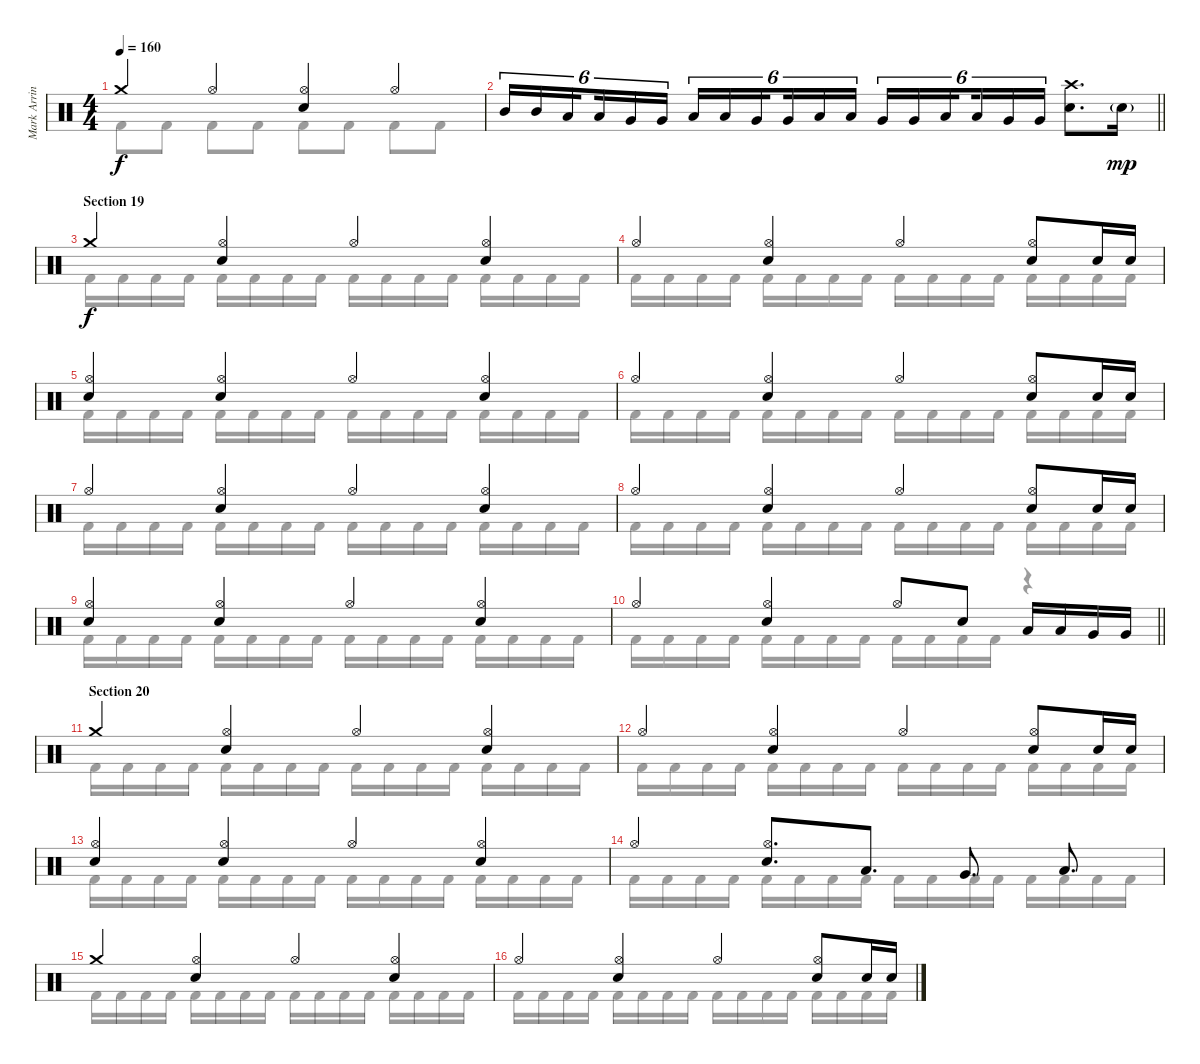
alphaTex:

\track ("Mark Arrington – drums" "Mark Arrin") {instrument percussion}
\staff {score}
\articulation defaults
\voice
\ts (4 4)
\tempo 160
\clef neutral
\ks c "Crash medium (hit)".4{dy f} "Hi-Hat (open)".4
("Hi-Hat (open)" "Electric Snare (hit)").4 "Hi-Hat (open)".4 |
\barLineRight lightlight "Mid Tom (hit)".16{tu (6 4)} "Mid Tom (hit)".16{tu (6 4)} "Low Tom (hit)".16{tu (6 4) beam splitsecondary} "Low Tom (hit)".16{tu (6 4)} "Very Low Tom (hit)".16{tu (6 4)} "Very Low Tom (hit)".16{tu (6 4)} "Low Tom (hit)".16{tu (6 4)} "Low Tom (hit)".16{tu (6 4)} "Very Low Tom (hit)".16{tu (6 4) beam splitsecondary} "Very Low Tom (hit)".16{tu (6 4)} "Low Floor Tom (hit)".16{tu (6 4)} "Low Floor Tom (hit)".16{tu (6 4)} "Very Low Tom (hit)".16{tu (6 4)} "Very Low Tom (hit)".16{tu (6 4)} "Low Floor Tom (hit)".16{tu (6 4) beam splitsecondary} "Low Floor Tom (hit)".16{tu (6 4)} "Very Low Tom (hit)".16{tu (6 4)} "Very Low Tom (hit)".16{tu (6 4)}
("Crash high (hit)" "Electric Snare (hit)").8{d} "Electric Snare (hit)"{g}.16{dy mp} |
\section ("" "Section 19")
"Crash medium (hit)".4{dy f} ("Hi-Hat (open)" "Electric Snare (hit)").4 "Hi-Hat (open)".4 ("Hi-Hat (open)" "Electric Snare (hit)").4 |
"Hi-Hat (open)".4 ("Hi-Hat (open)" "Electric Snare (hit)").4 "Hi-Hat (open)".4 ("Hi-Hat (open)" "Electric Snare (hit)").8 "Electric Snare (hit)".16 "Electric Snare (hit)".16 |
("Hi-Hat (open)" "Electric Snare (hit)").4 ("Hi-Hat (open)" "Electric Snare (hit)").4 "Hi-Hat (open)".4 ("Hi-Hat (open)" "Electric Snare (hit)").4 |
"Hi-Hat (open)".4 ("Hi-Hat (open)" "Electric Snare (hit)").4 "Hi-Hat (open)".4 ("Hi-Hat (open)" "Electric Snare (hit)").8 "Electric Snare (hit)".16 "Electric Snare (hit)".16 |
"Hi-Hat (open)".4 ("Hi-Hat (open)" "Electric Snare (hit)").4 "Hi-Hat (open)".4 ("Hi-Hat (open)" "Electric Snare (hit)").4 |
"Hi-Hat (open)".4 ("Hi-Hat (open)" "Electric Snare (hit)").4 "Hi-Hat (open)".4 ("Hi-Hat (open)" "Electric Snare (hit)").8 "Electric Snare (hit)".16 "Electric Snare (hit)".16 |
("Hi-Hat (open)" "Electric Snare (hit)").4 ("Hi-Hat (open)" "Electric Snare (hit)").4 "Hi-Hat (open)".4 ("Hi-Hat (open)" "Electric Snare (hit)").4 |
\barLineRight lightlight "Hi-Hat (open)".4
("Hi-Hat (open)" "Electric Snare (hit)").4 "Hi-Hat (open)".8 "Electric Snare (hit)".8 "Low Tom (hit)".16 "Low Tom (hit)".16 "Very Low Tom (hit)".16 "Very Low Tom (hit)".16 |
\section ("" "Section 20")
"Crash medium (hit)".4 ("Hi-Hat (open)" "Electric Snare (hit)").4 "Hi-Hat (open)".4 ("Hi-Hat (open)" "Electric Snare (hit)").4 |
"Hi-Hat (open)".4 ("Hi-Hat (open)" "Electric Snare (hit)").4 "Hi-Hat (open)".4 ("Hi-Hat (open)" "Electric Snare (hit)").8 "Electric Snare (hit)".16 "Electric Snare (hit)".16 |
("Hi-Hat (open)" "Electric Snare (hit)").4 ("Hi-Hat (open)" "Electric Snare (hit)").4 "Hi-Hat (open)".4 ("Hi-Hat (open)" "Electric Snare (hit)").4 |
"Hi-Hat (open)".4 ("Hi-Hat (open)" "Electric Snare (hit)").8{d} "Low Tom (hit)".8{d} "Very Low Tom (hit)".8{d} "Low Floor Tom (hit)".8{d} |
"Crash medium (hit)".4 ("Hi-Hat (open)" "Electric Snare (hit)").4 "Hi-Hat (open)".4 ("Hi-Hat (open)" "Electric Snare (hit)").4 |
"Hi-Hat (open)".4 ("Hi-Hat (open)" "Electric Snare (hit)").4 "Hi-Hat (open)".4 ("Hi-Hat (open)" "Electric Snare (hit)").8 "Electric Snare (hit)".16 "Electric Snare (hit)".16
\voice
\clef neutral
\ottava regular
\simile none
\ks c "Kick (hit) 2".8{dy f} "Kick (hit) 2".8 "Kick (hit) 2".8 "Kick (hit) 2".8 "Kick (hit) 2".8 "Kick (hit) 2".8 "Kick (hit) 2".8 "Kick (hit) 2".8
|
\barLineRight lightlight
|
"Kick (hit) 2".16 "Kick (hit) 2".16 "Kick (hit) 2".16 "Kick (hit) 2".16 "Kick (hit) 2".16 "Kick (hit) 2".16 "Kick (hit) 2".16 "Kick (hit) 2".16 "Kick (hit) 2".16 "Kick (hit) 2".16 "Kick (hit) 2".16 "Kick (hit) 2".16 "Kick (hit) 2".16 "Kick (hit) 2".16 "Kick (hit) 2".16 "Kick (hit) 2".16 |
"Kick (hit) 2".16 "Kick (hit) 2".16 "Kick (hit) 2".16 "Kick (hit) 2".16 "Kick (hit) 2".16 "Kick (hit) 2".16 "Kick (hit) 2".16 "Kick (hit) 2".16 "Kick (hit) 2".16 "Kick (hit) 2".16 "Kick (hit) 2".16 "Kick (hit) 2".16 "Kick (hit) 2".16 "Kick (hit) 2".16 "Kick (hit) 2".16 "Kick (hit) 2".16 |
"Kick (hit) 2".16 "Kick (hit) 2".16 "Kick (hit) 2".16 "Kick (hit) 2".16 "Kick (hit) 2".16 "Kick (hit) 2".16 "Kick (hit) 2".16 "Kick (hit) 2".16 "Kick (hit) 2".16 "Kick (hit) 2".16 "Kick (hit) 2".16 "Kick (hit) 2".16 "Kick (hit) 2".16 "Kick (hit) 2".16 "Kick (hit) 2".16 "Kick (hit) 2".16 |
"Kick (hit) 2".16 "Kick (hit) 2".16 "Kick (hit) 2".16 "Kick (hit) 2".16 "Kick (hit) 2".16 "Kick (hit) 2".16 "Kick (hit) 2".16 "Kick (hit) 2".16 "Kick (hit) 2".16 "Kick (hit) 2".16 "Kick (hit) 2".16 "Kick (hit) 2".16 "Kick (hit) 2".16 "Kick (hit) 2".16 "Kick (hit) 2".16 "Kick (hit) 2".16 |
"Kick (hit) 2".16 "Kick (hit) 2".16 "Kick (hit) 2".16 "Kick (hit) 2".16 "Kick (hit) 2".16 "Kick (hit) 2".16 "Kick (hit) 2".16 "Kick (hit) 2".16 "Kick (hit) 2".16 "Kick (hit) 2".16 "Kick (hit) 2".16 "Kick (hit) 2".16 "Kick (hit) 2".16 "Kick (hit) 2".16 "Kick (hit) 2".16 "Kick (hit) 2".16 |
"Kick (hit) 2".16 "Kick (hit) 2".16 "Kick (hit) 2".16 "Kick (hit) 2".16 "Kick (hit) 2".16 "Kick (hit) 2".16 "Kick (hit) 2".16 "Kick (hit) 2".16 "Kick (hit) 2".16 "Kick (hit) 2".16 "Kick (hit) 2".16 "Kick (hit) 2".16 "Kick (hit) 2".16 "Kick (hit) 2".16 "Kick (hit) 2".16 "Kick (hit) 2".16 |
"Kick (hit) 2".16 "Kick (hit) 2".16 "Kick (hit) 2".16 "Kick (hit) 2".16 "Kick (hit) 2".16 "Kick (hit) 2".16 "Kick (hit) 2".16 "Kick (hit) 2".16 "Kick (hit) 2".16 "Kick (hit) 2".16 "Kick (hit) 2".16 "Kick (hit) 2".16 "Kick (hit) 2".16 "Kick (hit) 2".16 "Kick (hit) 2".16 "Kick (hit) 2".16 |
\barLineRight lightlight "Kick (hit) 2".16 "Kick (hit) 2".16 "Kick (hit) 2".16 "Kick (hit) 2".16 "Kick (hit) 2".16 "Kick (hit) 2".16 "Kick (hit) 2".16 "Kick (hit) 2".16 "Kick (hit) 2".16 "Kick (hit) 2".16 "Kick (hit) 2".16 "Kick (hit) 2".16
r.4 |
"Kick (hit) 2".16 "Kick (hit) 2".16 "Kick (hit) 2".16 "Kick (hit) 2".16 "Kick (hit) 2".16 "Kick (hit) 2".16 "Kick (hit) 2".16 "Kick (hit) 2".16 "Kick (hit) 2".16 "Kick (hit) 2".16 "Kick (hit) 2".16 "Kick (hit) 2".16 "Kick (hit) 2".16 "Kick (hit) 2".16 "Kick (hit) 2".16 "Kick (hit) 2".16 |
"Kick (hit) 2".16 "Kick (hit) 2".16 "Kick (hit) 2".16 "Kick (hit) 2".16 "Kick (hit) 2".16 "Kick (hit) 2".16 "Kick (hit) 2".16 "Kick (hit) 2".16 "Kick (hit) 2".16 "Kick (hit) 2".16 "Kick (hit) 2".16 "Kick (hit) 2".16 "Kick (hit) 2".16 "Kick (hit) 2".16 "Kick (hit) 2".16 "Kick (hit) 2".16 |
"Kick (hit) 2".16 "Kick (hit) 2".16 "Kick (hit) 2".16 "Kick (hit) 2".16 "Kick (hit) 2".16 "Kick (hit) 2".16 "Kick (hit) 2".16 "Kick (hit) 2".16 "Kick (hit) 2".16 "Kick (hit) 2".16 "Kick (hit) 2".16 "Kick (hit) 2".16 "Kick (hit) 2".16 "Kick (hit) 2".16 "Kick (hit) 2".16 "Kick (hit) 2".16 |
"Kick (hit) 2".16 "Kick (hit) 2".16 "Kick (hit) 2".16 "Kick (hit) 2".16 "Kick (hit) 2".16 "Kick (hit) 2".16 "Kick (hit) 2".16 "Kick (hit) 2".16 "Kick (hit) 2".16 "Kick (hit) 2".16 "Kick (hit) 2".16 "Kick (hit) 2".16 "Kick (hit) 2".16 "Kick (hit) 2".16 "Kick (hit) 2".16 "Kick (hit) 2".16 |
"Kick (hit) 2".16 "Kick (hit) 2".16 "Kick (hit) 2".16 "Kick (hit) 2".16 "Kick (hit) 2".16 "Kick (hit) 2".16 "Kick (hit) 2".16 "Kick (hit) 2".16 "Kick (hit) 2".16 "Kick (hit) 2".16 "Kick (hit) 2".16 "Kick (hit) 2".16 "Kick (hit) 2".16 "Kick (hit) 2".16 "Kick (hit) 2".16 "Kick (hit) 2".16 |
"Kick (hit) 2".16 "Kick (hit) 2".16 "Kick (hit) 2".16 "Kick (hit) 2".16 "Kick (hit) 2".16 "Kick (hit) 2".16 "Kick (hit) 2".16 "Kick (hit) 2".16 "Kick (hit) 2".16 "Kick (hit) 2".16 "Kick (hit) 2".16 "Kick (hit) 2".16 "Kick (hit) 2".16 "Kick (hit) 2".16 "Kick (hit) 2".16 "Kick (hit) 2".16
